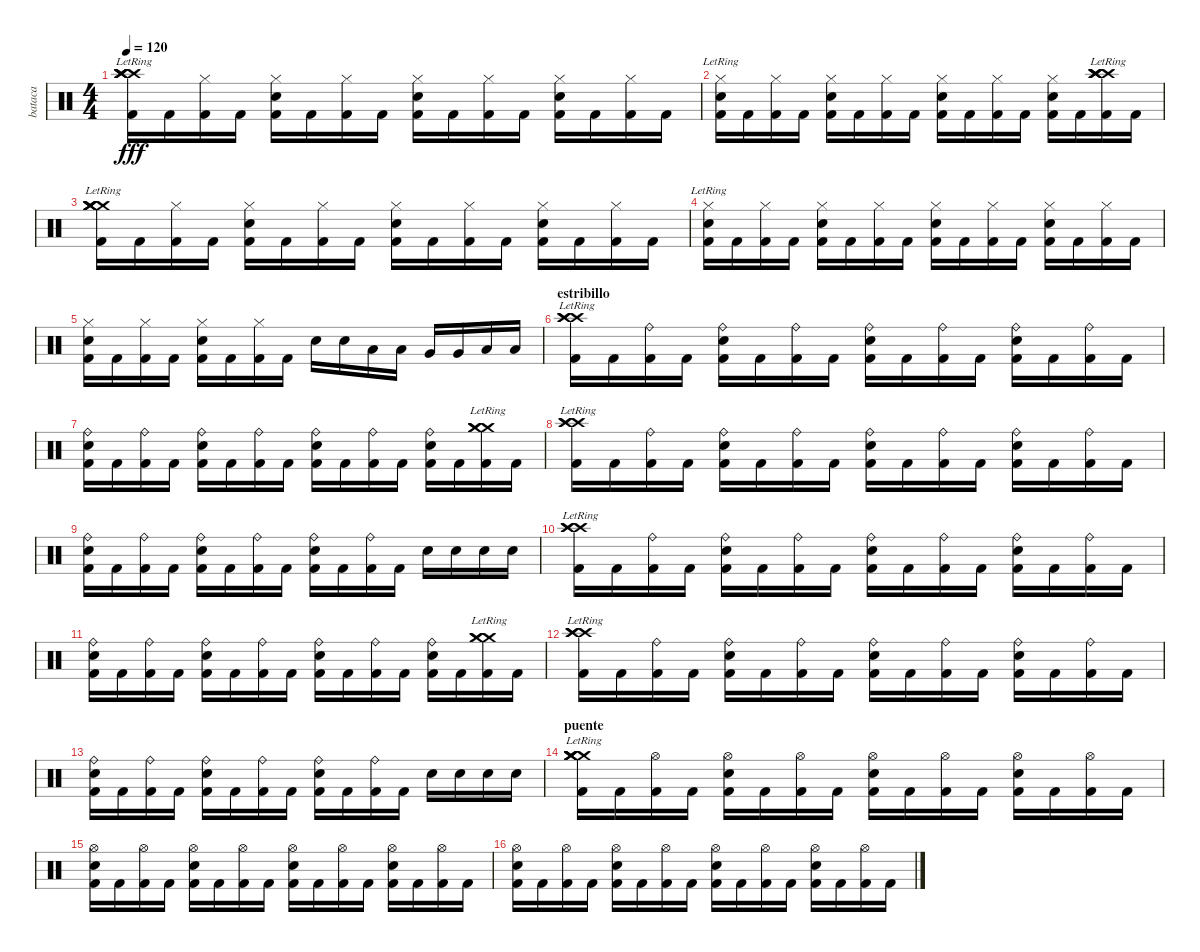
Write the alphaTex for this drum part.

\track ("bataca" "bataca") {instrument percussion}
\staff {score}
\articulation defaults
\ts (4 4)
\tempo 120
\clef neutral
\ks c
("Kick (hit) 2" "Crash high (hit)"{lr} "Crash high (hit)"{lr} "Crash high (hit)"{lr} "Crash high (hit)"{lr} "Crash high (hit)"{lr}).16{dy fff} "Kick (hit) 2".16 ("Kick (hit) 2" "Hi-Hat (closed)").16 "Kick (hit) 2".16 ("Kick (hit) 2" "Hi-Hat (closed)" "Electric Snare (hit)").16 "Kick (hit) 2".16 ("Kick (hit) 2" "Hi-Hat (closed)").16 "Kick (hit) 2".16 ("Kick (hit) 2" "Hi-Hat (closed)" "Electric Snare (hit)").16 "Kick (hit) 2".16 ("Kick (hit) 2" "Hi-Hat (closed)").16 "Kick (hit) 2".16 ("Kick (hit) 2" "Hi-Hat (closed)" "Electric Snare (hit)").16 "Kick (hit) 2".16 ("Kick (hit) 2" "Hi-Hat (closed)").16 "Kick (hit) 2".16 |
("Kick (hit) 2" "Hi-Hat (closed)"{lr} "Electric Snare (hit)").16 "Kick (hit) 2".16 ("Kick (hit) 2" "Hi-Hat (closed)").16 "Kick (hit) 2".16 ("Kick (hit) 2" "Hi-Hat (closed)" "Electric Snare (hit)").16 "Kick (hit) 2".16 ("Kick (hit) 2" "Hi-Hat (closed)").16 "Kick (hit) 2".16 ("Kick (hit) 2" "Hi-Hat (closed)" "Electric Snare (hit)").16 "Kick (hit) 2".16 ("Kick (hit) 2" "Hi-Hat (closed)").16 "Kick (hit) 2".16 ("Kick (hit) 2" "Hi-Hat (closed)" "Electric Snare (hit)").16 "Kick (hit) 2".16 ("Kick (hit) 2" "Crash high (hit)"{lr} "Crash high (hit)"{lr} "Crash high (hit)"{lr} "Crash high (hit)"{lr} "Crash high (hit)"{lr}).16 "Kick (hit) 2".16 |
("Kick (hit) 2" "Crash medium (hit)"{lr} "Crash medium (hit)"{lr} "Crash medium (hit)"{lr} "Crash medium (hit)"{lr} "Crash medium (hit)"{lr}).16 "Kick (hit) 2".16 ("Kick (hit) 2" "Hi-Hat (closed)").16 "Kick (hit) 2".16 ("Kick (hit) 2" "Hi-Hat (closed)" "Electric Snare (hit)").16 "Kick (hit) 2".16 ("Kick (hit) 2" "Hi-Hat (closed)").16 "Kick (hit) 2".16 ("Kick (hit) 2" "Hi-Hat (closed)" "Electric Snare (hit)").16 "Kick (hit) 2".16 ("Kick (hit) 2" "Hi-Hat (closed)").16 "Kick (hit) 2".16 ("Kick (hit) 2" "Hi-Hat (closed)" "Electric Snare (hit)").16 "Kick (hit) 2".16 ("Kick (hit) 2" "Hi-Hat (closed)").16 "Kick (hit) 2".16 |
("Kick (hit) 2" "Hi-Hat (closed)"{lr} "Electric Snare (hit)"{lr}).16 "Kick (hit) 2".16 ("Kick (hit) 2" "Hi-Hat (closed)").16 "Kick (hit) 2".16 ("Kick (hit) 2" "Hi-Hat (closed)" "Electric Snare (hit)").16 "Kick (hit) 2".16 ("Kick (hit) 2" "Hi-Hat (closed)").16 "Kick (hit) 2".16 ("Kick (hit) 2" "Hi-Hat (closed)" "Electric Snare (hit)").16 "Kick (hit) 2".16 ("Kick (hit) 2" "Hi-Hat (closed)").16 "Kick (hit) 2".16 ("Kick (hit) 2" "Hi-Hat (closed)" "Electric Snare (hit)").16 "Kick (hit) 2".16 ("Kick (hit) 2" "Hi-Hat (closed)").16 "Kick (hit) 2".16 |
("Kick (hit) 2" "Hi-Hat (closed)" "Electric Snare (hit)").16 "Kick (hit) 2".16 ("Kick (hit) 2" "Hi-Hat (closed)").16 "Kick (hit) 2".16 ("Kick (hit) 2" "Hi-Hat (closed)" "Electric Snare (hit)").16 "Kick (hit) 2".16 ("Kick (hit) 2" "Hi-Hat (closed)").16 "Kick (hit) 2".16 "Electric Snare (hit)".16 "Electric Snare (hit)".16 "Low Tom (hit)".16 "Low Tom (hit)".16 "Very Low Tom (hit)".16 "Very Low Tom (hit)".16 "Low Floor Tom (hit)".16 "Low Floor Tom (hit)".16 |
\section ("" "estribillo")
("Kick (hit) 2" "Crash high (hit)"{lr} "Crash high (hit)"{lr} "Crash high (hit)"{lr}).16 "Kick (hit) 2".16 ("Kick (hit) 2" "Ride (bell)").16 "Kick (hit) 2".16 ("Kick (hit) 2" "Ride (bell)" "Electric Snare (hit)").16 "Kick (hit) 2".16 ("Kick (hit) 2" "Ride (bell)").16 "Kick (hit) 2".16 ("Kick (hit) 2" "Ride (bell)" "Electric Snare (hit)").16 "Kick (hit) 2".16 ("Kick (hit) 2" "Ride (bell)").16 "Kick (hit) 2".16 ("Kick (hit) 2" "Ride (bell)" "Electric Snare (hit)").16 "Kick (hit) 2".16 ("Kick (hit) 2" "Ride (bell)").16 "Kick (hit) 2".16 |
("Kick (hit) 2" "Ride (bell)" "Electric Snare (hit)").16 "Kick (hit) 2".16 ("Kick (hit) 2" "Ride (bell)").16 "Kick (hit) 2".16 ("Kick (hit) 2" "Ride (bell)" "Electric Snare (hit)").16 "Kick (hit) 2".16 ("Kick (hit) 2" "Ride (bell)").16 "Kick (hit) 2".16 ("Kick (hit) 2" "Ride (bell)" "Electric Snare (hit)").16 "Kick (hit) 2".16 ("Kick (hit) 2" "Ride (bell)").16 "Kick (hit) 2".16 ("Kick (hit) 2" "Ride (bell)" "Electric Snare (hit)").16 "Kick (hit) 2".16 ("Kick (hit) 2" "Crash medium (hit)"{lr} "Crash medium (hit)"{lr} "Crash medium (hit)"{lr}).16 "Kick (hit) 2".16 |
("Kick (hit) 2" "Crash high (hit)"{lr} "Crash high (hit)"{lr} "Crash high (hit)"{lr}).16 "Kick (hit) 2".16 ("Kick (hit) 2" "Ride (bell)").16 "Kick (hit) 2".16 ("Kick (hit) 2" "Ride (bell)" "Electric Snare (hit)").16 "Kick (hit) 2".16 ("Kick (hit) 2" "Ride (bell)").16 "Kick (hit) 2".16 ("Kick (hit) 2" "Ride (bell)" "Electric Snare (hit)").16 "Kick (hit) 2".16 ("Kick (hit) 2" "Ride (bell)").16 "Kick (hit) 2".16 ("Kick (hit) 2" "Ride (bell)" "Electric Snare (hit)").16 "Kick (hit) 2".16 ("Kick (hit) 2" "Ride (bell)").16 "Kick (hit) 2".16 |
("Kick (hit) 2" "Ride (bell)" "Electric Snare (hit)").16 "Kick (hit) 2".16 ("Kick (hit) 2" "Ride (bell)").16 "Kick (hit) 2".16 ("Kick (hit) 2" "Ride (bell)" "Electric Snare (hit)").16 "Kick (hit) 2".16 ("Kick (hit) 2" "Ride (bell)").16 "Kick (hit) 2".16 ("Kick (hit) 2" "Ride (bell)" "Electric Snare (hit)").16 "Kick (hit) 2".16 ("Kick (hit) 2" "Ride (bell)").16 "Kick (hit) 2".16 "Electric Snare (hit)".16 "Electric Snare (hit)".16 "Electric Snare (hit)".16 "Electric Snare (hit)".16 |
("Kick (hit) 2" "Crash high (hit)"{lr} "Crash high (hit)"{lr} "Crash high (hit)"{lr}).16 "Kick (hit) 2".16 ("Kick (hit) 2" "Ride (bell)").16 "Kick (hit) 2".16 ("Kick (hit) 2" "Ride (bell)" "Electric Snare (hit)").16 "Kick (hit) 2".16 ("Kick (hit) 2" "Ride (bell)").16 "Kick (hit) 2".16 ("Kick (hit) 2" "Ride (bell)" "Electric Snare (hit)").16 "Kick (hit) 2".16 ("Kick (hit) 2" "Ride (bell)").16 "Kick (hit) 2".16 ("Kick (hit) 2" "Ride (bell)" "Electric Snare (hit)").16 "Kick (hit) 2".16 ("Kick (hit) 2" "Ride (bell)").16 "Kick (hit) 2".16 |
("Kick (hit) 2" "Ride (bell)" "Electric Snare (hit)").16 "Kick (hit) 2".16 ("Kick (hit) 2" "Ride (bell)").16 "Kick (hit) 2".16 ("Kick (hit) 2" "Ride (bell)" "Electric Snare (hit)").16 "Kick (hit) 2".16 ("Kick (hit) 2" "Ride (bell)").16 "Kick (hit) 2".16 ("Kick (hit) 2" "Ride (bell)" "Electric Snare (hit)").16 "Kick (hit) 2".16 ("Kick (hit) 2" "Ride (bell)").16 "Kick (hit) 2".16 ("Kick (hit) 2" "Ride (bell)" "Electric Snare (hit)").16 "Kick (hit) 2".16 ("Kick (hit) 2" "Crash medium (hit)"{lr} "Crash medium (hit)"{lr} "Crash medium (hit)"{lr}).16 "Kick (hit) 2".16 |
("Kick (hit) 2" "Crash high (hit)"{lr} "Crash high (hit)"{lr} "Crash high (hit)"{lr}).16 "Kick (hit) 2".16 ("Kick (hit) 2" "Ride (bell)").16 "Kick (hit) 2".16 ("Kick (hit) 2" "Ride (bell)" "Electric Snare (hit)").16 "Kick (hit) 2".16 ("Kick (hit) 2" "Ride (bell)").16 "Kick (hit) 2".16 ("Kick (hit) 2" "Ride (bell)" "Electric Snare (hit)").16 "Kick (hit) 2".16 ("Kick (hit) 2" "Ride (bell)").16 "Kick (hit) 2".16 ("Kick (hit) 2" "Ride (bell)" "Electric Snare (hit)").16 "Kick (hit) 2".16 ("Kick (hit) 2" "Ride (bell)").16 "Kick (hit) 2".16 |
("Kick (hit) 2" "Ride (bell)" "Electric Snare (hit)").16 "Kick (hit) 2".16 ("Kick (hit) 2" "Ride (bell)").16 "Kick (hit) 2".16 ("Kick (hit) 2" "Ride (bell)" "Electric Snare (hit)").16 "Kick (hit) 2".16 ("Kick (hit) 2" "Ride (bell)").16 "Kick (hit) 2".16 ("Kick (hit) 2" "Ride (bell)" "Electric Snare (hit)").16 "Kick (hit) 2".16 ("Kick (hit) 2" "Ride (bell)").16 "Kick (hit) 2".16 "Electric Snare (hit)".16 "Electric Snare (hit)".16 "Electric Snare (hit)".16 "Electric Snare (hit)".16 |
\section ("" "puente")
("Kick (hit) 2" "Crash medium (hit)"{lr} "Crash medium (hit)"{lr} "Crash medium (hit)"{lr} "Crash medium (hit)"{lr} "Crash medium (hit)").16 "Kick (hit) 2".16 ("Kick (hit) 2" "Hi-Hat (open)").16 "Kick (hit) 2".16 ("Kick (hit) 2" "Hi-Hat (open)" "Electric Snare (hit)").16 "Kick (hit) 2".16 ("Kick (hit) 2" "Hi-Hat (open)").16 "Kick (hit) 2".16 ("Kick (hit) 2" "Hi-Hat (open)" "Electric Snare (hit)").16 "Kick (hit) 2".16 ("Kick (hit) 2" "Hi-Hat (open)").16 "Kick (hit) 2".16 ("Kick (hit) 2" "Hi-Hat (open)" "Electric Snare (hit)").16 "Kick (hit) 2".16 ("Kick (hit) 2" "Hi-Hat (open)").16 "Kick (hit) 2".16 |
("Kick (hit) 2" "Hi-Hat (open)" "Electric Snare (hit)").16 "Kick (hit) 2".16 ("Kick (hit) 2" "Hi-Hat (open)").16 "Kick (hit) 2".16 ("Kick (hit) 2" "Hi-Hat (open)" "Electric Snare (hit)").16 "Kick (hit) 2".16 ("Kick (hit) 2" "Hi-Hat (open)").16 "Kick (hit) 2".16 ("Kick (hit) 2" "Hi-Hat (open)" "Electric Snare (hit)").16 "Kick (hit) 2".16 ("Kick (hit) 2" "Hi-Hat (open)").16 "Kick (hit) 2".16 ("Kick (hit) 2" "Hi-Hat (open)" "Electric Snare (hit)").16 "Kick (hit) 2".16 ("Kick (hit) 2" "Hi-Hat (open)").16 "Kick (hit) 2".16 |
("Kick (hit) 2" "Hi-Hat (open)" "Electric Snare (hit)").16 "Kick (hit) 2".16 ("Kick (hit) 2" "Hi-Hat (open)").16 "Kick (hit) 2".16 ("Kick (hit) 2" "Hi-Hat (open)" "Electric Snare (hit)").16 "Kick (hit) 2".16 ("Kick (hit) 2" "Hi-Hat (open)").16 "Kick (hit) 2".16 ("Kick (hit) 2" "Hi-Hat (open)" "Electric Snare (hit)").16 "Kick (hit) 2".16 ("Kick (hit) 2" "Hi-Hat (open)").16 "Kick (hit) 2".16 ("Kick (hit) 2" "Hi-Hat (open)" "Electric Snare (hit)").16 "Kick (hit) 2".16 ("Kick (hit) 2" "Hi-Hat (open)").16 "Kick (hit) 2".16
